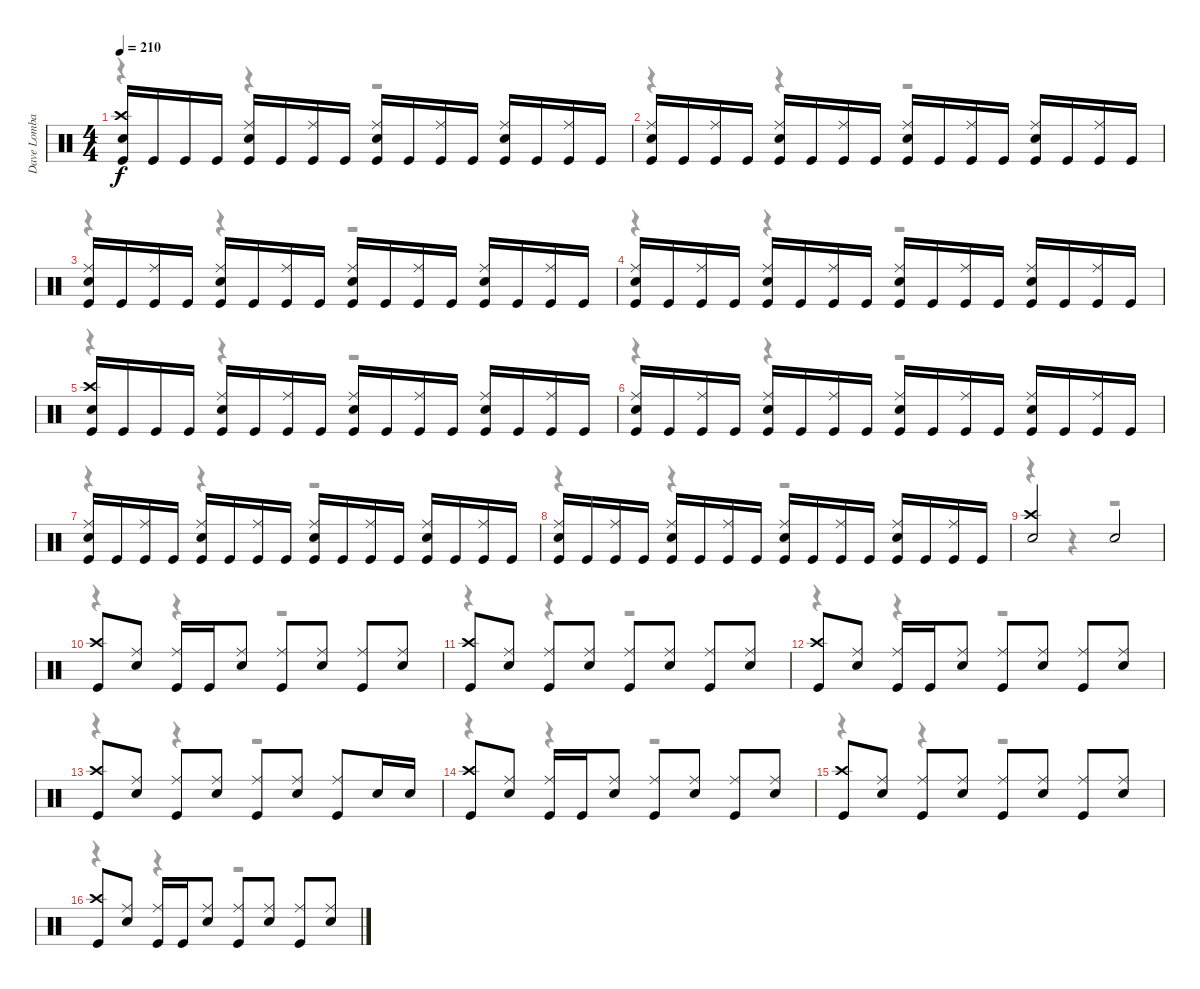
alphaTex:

\track ("Dave Lombardo" "Dave Lomba") {instrument percussion}
\staff {score}
\articulation defaults
\voice
\ts (4 4)
\tempo 210
\clef neutral
\ks c
("Crash high (hit)" "Snare (hit) 2" "Kick (hit)").16{dy f} "Kick (hit)".16 "Kick (hit)".16 "Kick (hit)".16 ("Ride (middle)" "Snare (hit) 2" "Kick (hit)").16 "Kick (hit)".16 ("Ride (middle)" "Kick (hit)").16 "Kick (hit)".16 ("Ride (middle)" "Snare (hit) 2" "Kick (hit)").16 "Kick (hit)".16 ("Ride (middle)" "Kick (hit)").16 "Kick (hit)".16 ("Ride (middle)" "Snare (hit) 2" "Kick (hit)").16 "Kick (hit)".16 ("Ride (middle)" "Kick (hit)").16 "Kick (hit)".16 |
("Ride (middle)" "Snare (hit) 2" "Kick (hit)").16 "Kick (hit)".16 ("Ride (middle)" "Kick (hit)").16 "Kick (hit)".16 ("Ride (middle)" "Snare (hit) 2" "Kick (hit)").16 "Kick (hit)".16 ("Ride (middle)" "Kick (hit)").16 "Kick (hit)".16 ("Ride (middle)" "Snare (hit) 2" "Kick (hit)").16 "Kick (hit)".16 ("Ride (middle)" "Kick (hit)").16 "Kick (hit)".16 ("Ride (middle)" "Snare (hit) 2" "Kick (hit)").16 "Kick (hit)".16 ("Ride (middle)" "Kick (hit)").16 "Kick (hit)".16 |
("Ride (middle)" "Snare (hit) 2" "Kick (hit)").16 "Kick (hit)".16 ("Ride (middle)" "Kick (hit)").16 "Kick (hit)".16 ("Ride (middle)" "Snare (hit) 2" "Kick (hit)").16 "Kick (hit)".16 ("Ride (middle)" "Kick (hit)").16 "Kick (hit)".16 ("Ride (middle)" "Snare (hit) 2" "Kick (hit)").16 "Kick (hit)".16 ("Ride (middle)" "Kick (hit)").16 "Kick (hit)".16 ("Ride (middle)" "Snare (hit) 2" "Kick (hit)").16 "Kick (hit)".16 ("Ride (middle)" "Kick (hit)").16 "Kick (hit)".16 |
("Ride (middle)" "Snare (hit) 2" "Kick (hit)").16 "Kick (hit)".16 ("Ride (middle)" "Kick (hit)").16 "Kick (hit)".16 ("Ride (middle)" "Snare (hit) 2" "Kick (hit)").16 "Kick (hit)".16 ("Ride (middle)" "Kick (hit)").16 "Kick (hit)".16 ("Ride (middle)" "Snare (hit) 2" "Kick (hit)").16 "Kick (hit)".16 ("Ride (middle)" "Kick (hit)").16 "Kick (hit)".16 ("Ride (middle)" "Snare (hit) 2" "Kick (hit)").16 "Kick (hit)".16 ("Ride (middle)" "Kick (hit)").16 "Kick (hit)".16 |
("Crash high (hit)" "Snare (hit) 2" "Kick (hit)").16 "Kick (hit)".16 "Kick (hit)".16 "Kick (hit)".16 ("Ride (middle)" "Snare (hit) 2" "Kick (hit)").16 "Kick (hit)".16 ("Ride (middle)" "Kick (hit)").16 "Kick (hit)".16 ("Ride (middle)" "Snare (hit) 2" "Kick (hit)").16 "Kick (hit)".16 ("Ride (middle)" "Kick (hit)").16 "Kick (hit)".16 ("Ride (middle)" "Snare (hit) 2" "Kick (hit)").16 "Kick (hit)".16 ("Ride (middle)" "Kick (hit)").16 "Kick (hit)".16 |
("Ride (middle)" "Snare (hit) 2" "Kick (hit)").16 "Kick (hit)".16 ("Ride (middle)" "Kick (hit)").16 "Kick (hit)".16 ("Ride (middle)" "Snare (hit) 2" "Kick (hit)").16 "Kick (hit)".16 ("Ride (middle)" "Kick (hit)").16 "Kick (hit)".16 ("Ride (middle)" "Snare (hit) 2" "Kick (hit)").16 "Kick (hit)".16 ("Ride (middle)" "Kick (hit)").16 "Kick (hit)".16 ("Ride (middle)" "Snare (hit) 2" "Kick (hit)").16 "Kick (hit)".16 ("Ride (middle)" "Kick (hit)").16 "Kick (hit)".16 |
("Ride (middle)" "Snare (hit) 2" "Kick (hit)").16 "Kick (hit)".16 ("Ride (middle)" "Kick (hit)").16 "Kick (hit)".16 ("Ride (middle)" "Snare (hit) 2" "Kick (hit)").16 "Kick (hit)".16 ("Ride (middle)" "Kick (hit)").16 "Kick (hit)".16 ("Ride (middle)" "Snare (hit) 2" "Kick (hit)").16 "Kick (hit)".16 ("Ride (middle)" "Kick (hit)").16 "Kick (hit)".16 ("Ride (middle)" "Snare (hit) 2" "Kick (hit)").16 "Kick (hit)".16 ("Ride (middle)" "Kick (hit)").16 "Kick (hit)".16 |
("Ride (middle)" "Snare (hit) 2" "Kick (hit)").16 "Kick (hit)".16 ("Ride (middle)" "Kick (hit)").16 "Kick (hit)".16 ("Ride (middle)" "Snare (hit) 2" "Kick (hit)").16 "Kick (hit)".16 ("Ride (middle)" "Kick (hit)").16 "Kick (hit)".16 ("Ride (middle)" "Snare (hit) 2" "Kick (hit)").16 "Kick (hit)".16 ("Ride (middle)" "Kick (hit)").16 "Kick (hit)".16 ("Ride (middle)" "Snare (hit) 2" "Kick (hit)").16 "Kick (hit)".16 ("Ride (middle)" "Kick (hit)").16 "Kick (hit)".16 |
("Crash high (hit)" "Snare (hit) 2").2 "Snare (hit) 2".2 |
("Crash high (hit)" "Kick (hit)").8 ("Ride (middle)" "Snare (hit) 2").8 ("Ride (middle)" "Kick (hit)").16 "Kick (hit)".16 ("Ride (middle)" "Snare (hit) 2").8 ("Ride (middle)" "Kick (hit)").8 ("Ride (middle)" "Snare (hit) 2").8 ("Ride (middle)" "Kick (hit)").8 ("Ride (middle)" "Snare (hit) 2").8 |
("Crash high (hit)" "Kick (hit)").8 ("Ride (middle)" "Snare (hit) 2").8 ("Ride (middle)" "Kick (hit)").8 ("Ride (middle)" "Snare (hit) 2").8 ("Ride (middle)" "Kick (hit)").8 ("Ride (middle)" "Snare (hit) 2").8 ("Ride (middle)" "Kick (hit)").8 ("Ride (middle)" "Snare (hit) 2").8 |
("Crash high (hit)" "Kick (hit)").8 ("Ride (middle)" "Snare (hit) 2").8 ("Ride (middle)" "Kick (hit)").16 "Kick (hit)".16 ("Ride (middle)" "Snare (hit) 2").8 ("Ride (middle)" "Kick (hit)").8 ("Ride (middle)" "Snare (hit) 2").8 ("Ride (middle)" "Kick (hit)").8 ("Ride (middle)" "Snare (hit) 2").8 |
("Crash high (hit)" "Kick (hit)").8 ("Ride (middle)" "Snare (hit) 2").8 ("Ride (middle)" "Kick (hit)").8 ("Ride (middle)" "Snare (hit) 2").8 ("Ride (middle)" "Kick (hit)").8 ("Ride (middle)" "Snare (hit) 2").8 ("Ride (middle)" "Kick (hit)").8 "Snare (hit) 2".16 "Snare (hit) 2".16 |
("Crash high (hit)" "Kick (hit)").8 ("Ride (middle)" "Snare (hit) 2").8 ("Ride (middle)" "Kick (hit)").16 "Kick (hit)".16 ("Ride (middle)" "Snare (hit) 2").8 ("Ride (middle)" "Kick (hit)").8 ("Ride (middle)" "Snare (hit) 2").8 ("Ride (middle)" "Kick (hit)").8 ("Ride (middle)" "Snare (hit) 2").8 |
("Crash high (hit)" "Kick (hit)").8 ("Ride (middle)" "Snare (hit) 2").8 ("Ride (middle)" "Kick (hit)").8 ("Ride (middle)" "Snare (hit) 2").8 ("Ride (middle)" "Kick (hit)").8 ("Ride (middle)" "Snare (hit) 2").8 ("Ride (middle)" "Kick (hit)").8 ("Ride (middle)" "Snare (hit) 2").8 |
("Crash high (hit)" "Kick (hit)").8 ("Ride (middle)" "Snare (hit) 2").8 ("Ride (middle)" "Kick (hit)").16 "Kick (hit)".16 ("Ride (middle)" "Snare (hit) 2").8 ("Ride (middle)" "Kick (hit)").8 ("Ride (middle)" "Snare (hit) 2").8 ("Ride (middle)" "Kick (hit)").8 ("Ride (middle)" "Snare (hit) 2").8
\voice
\clef neutral
\ottava regular
\simile none
\ks c
r.4{dy f} r.4 r.2 |
r.4 r.4 r.2 |
r.4 r.4 r.2 |
r.4 r.4 r.2 |
r.4 r.4 r.2 |
r.4 r.4 r.2 |
r.4 r.4 r.2 |
r.4 r.4 r.2 |
r.4 r.4 r.2 |
r.4 r.4 r.2 |
r.4 r.4 r.2 |
r.4 r.4 r.2 |
r.4 r.4 r.2 |
r.4 r.4 r.2 |
r.4 r.4 r.2 |
r.4 r.4 r.2
